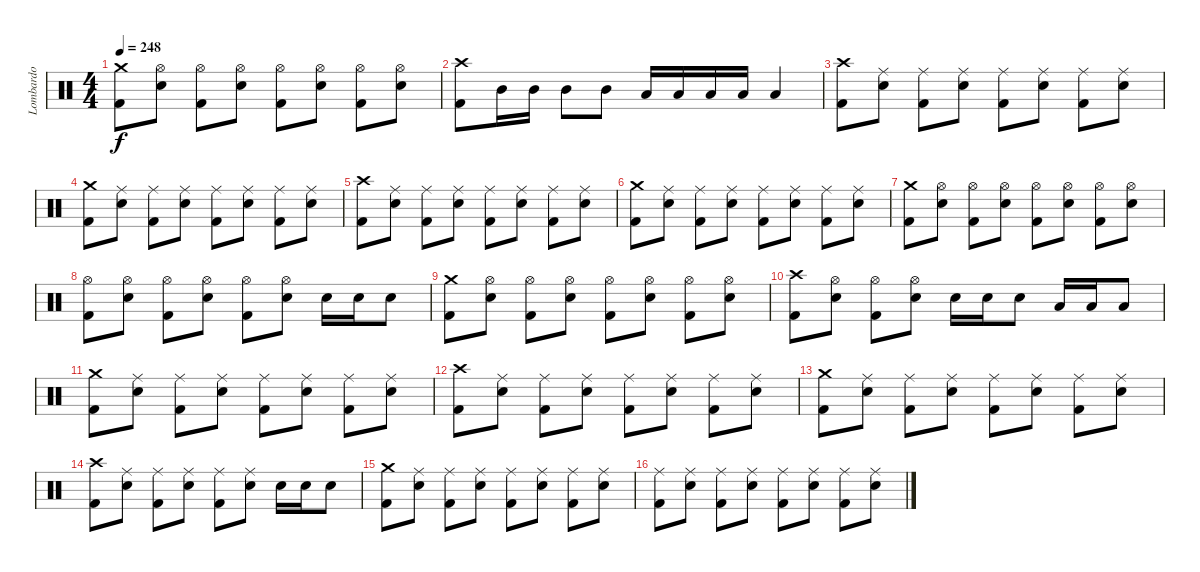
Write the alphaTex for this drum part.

\track ("Lombardo" "Lombardo") {instrument percussion}
\staff {score}
\articulation defaults
\ts (4 4)
\tempo 248
\clef neutral
\ks c
("Crash medium (hit)" "Kick (hit) 2").8{dy f} ("Hi-Hat (open)" "Snare (hit) 2").8 ("Hi-Hat (open)" "Kick (hit) 2").8 ("Hi-Hat (open)" "Snare (hit) 2").8 ("Hi-Hat (open)" "Kick (hit) 2").8 ("Hi-Hat (open)" "Snare (hit) 2").8 ("Hi-Hat (open)" "Kick (hit) 2").8 ("Hi-Hat (open)" "Snare (hit) 2").8 |
("Crash high (hit)" "Kick (hit) 2").8 "Mid Tom (hit)".16 "Mid Tom (hit)".16 "Mid Tom (hit)".8 "Mid Tom (hit)".8 "Low Tom (hit)".16 "Low Tom (hit)".16 "Low Tom (hit)".16 "Low Tom (hit)".16 "Low Tom (hit)".4 |
("Crash high (hit)" "Kick (hit) 2").8 ("Ride (middle)" "Snare (hit) 2").8 ("Ride (middle)" "Kick (hit) 2").8 ("Ride (middle)" "Snare (hit) 2").8 ("Ride (middle)" "Kick (hit) 2").8 ("Ride (middle)" "Snare (hit) 2").8 ("Ride (middle)" "Kick (hit) 2").8 ("Ride (middle)" "Snare (hit) 2").8 |
("Crash medium (hit)" "Kick (hit) 2").8 ("Ride (middle)" "Snare (hit) 2").8 ("Ride (middle)" "Kick (hit) 2").8 ("Ride (middle)" "Snare (hit) 2").8 ("Ride (middle)" "Kick (hit) 2").8 ("Ride (middle)" "Snare (hit) 2").8 ("Ride (middle)" "Kick (hit) 2").8 ("Ride (middle)" "Snare (hit) 2").8 |
("Crash high (hit)" "Kick (hit) 2").8 ("Ride (middle)" "Snare (hit) 2").8 ("Ride (middle)" "Kick (hit) 2").8 ("Ride (middle)" "Snare (hit) 2").8 ("Ride (middle)" "Kick (hit) 2").8 ("Ride (middle)" "Snare (hit) 2").8 ("Ride (middle)" "Kick (hit) 2").8 ("Ride (middle)" "Snare (hit) 2").8 |
("Crash medium (hit)" "Kick (hit) 2").8 ("Ride (middle)" "Snare (hit) 2").8 ("Ride (middle)" "Kick (hit) 2").8 ("Ride (middle)" "Snare (hit) 2").8 ("Ride (middle)" "Kick (hit) 2").8 ("Ride (middle)" "Snare (hit) 2").8 ("Ride (middle)" "Kick (hit) 2").8 ("Ride (middle)" "Snare (hit) 2").8 |
("Crash medium (hit)" "Kick (hit) 2").8 ("Hi-Hat (open)" "Snare (hit) 2").8 ("Hi-Hat (open)" "Kick (hit) 2").8 ("Hi-Hat (open)" "Snare (hit) 2").8 ("Hi-Hat (open)" "Kick (hit) 2").8 ("Hi-Hat (open)" "Snare (hit) 2").8 ("Hi-Hat (open)" "Kick (hit) 2").8 ("Hi-Hat (open)" "Snare (hit) 2").8 |
("Hi-Hat (open)" "Kick (hit) 2").8 ("Hi-Hat (open)" "Snare (hit) 2").8 ("Hi-Hat (open)" "Kick (hit) 2").8 ("Hi-Hat (open)" "Snare (hit) 2").8 ("Hi-Hat (open)" "Kick (hit) 2").8 ("Hi-Hat (open)" "Snare (hit) 2").8 "Snare (hit) 2".16 "Snare (hit) 2".16 "Snare (hit) 2".8 |
("Crash medium (hit)" "Kick (hit) 2").8 ("Hi-Hat (open)" "Snare (hit) 2").8 ("Hi-Hat (open)" "Kick (hit) 2").8 ("Hi-Hat (open)" "Snare (hit) 2").8 ("Hi-Hat (open)" "Kick (hit) 2").8 ("Hi-Hat (open)" "Snare (hit) 2").8 ("Hi-Hat (open)" "Kick (hit) 2").8 ("Hi-Hat (open)" "Snare (hit) 2").8 |
("Crash high (hit)" "Kick (hit) 2").8 ("Hi-Hat (open)" "Snare (hit) 2").8 ("Hi-Hat (open)" "Kick (hit) 2").8 ("Hi-Hat (open)" "Snare (hit) 2").8 "Snare (hit) 2".16 "Snare (hit) 2".16 "Snare (hit) 2".8 "Low Tom (hit)".16 "Low Tom (hit)".16 "Low Tom (hit)".8 |
("Crash medium (hit)" "Kick (hit) 2").8 ("Ride (middle)" "Snare (hit) 2").8 ("Ride (middle)" "Kick (hit) 2").8 ("Ride (middle)" "Snare (hit) 2").8 ("Ride (middle)" "Kick (hit) 2").8 ("Ride (middle)" "Snare (hit) 2").8 ("Ride (middle)" "Kick (hit) 2").8 ("Ride (middle)" "Snare (hit) 2").8 |
("Crash high (hit)" "Kick (hit) 2").8 ("Ride (middle)" "Snare (hit) 2").8 ("Ride (middle)" "Kick (hit) 2").8 ("Ride (middle)" "Snare (hit) 2").8 ("Ride (middle)" "Kick (hit) 2").8 ("Ride (middle)" "Snare (hit) 2").8 ("Ride (middle)" "Kick (hit) 2").8 ("Ride (middle)" "Snare (hit) 2").8 |
("Crash medium (hit)" "Kick (hit) 2").8 ("Ride (middle)" "Snare (hit) 2").8 ("Ride (middle)" "Kick (hit) 2").8 ("Ride (middle)" "Snare (hit) 2").8 ("Ride (middle)" "Kick (hit) 2").8 ("Ride (middle)" "Snare (hit) 2").8 ("Ride (middle)" "Kick (hit) 2").8 ("Ride (middle)" "Snare (hit) 2").8 |
("Crash high (hit)" "Kick (hit) 2").8 ("Ride (middle)" "Snare (hit) 2").8 ("Ride (middle)" "Kick (hit) 2").8 ("Ride (middle)" "Snare (hit) 2").8 ("Ride (middle)" "Kick (hit) 2").8 ("Ride (middle)" "Snare (hit) 2").8 "Snare (hit) 2".16 "Snare (hit) 2".16 "Snare (hit) 2".8 |
("Crash medium (hit)" "Kick (hit) 2").8 ("Ride (middle)" "Snare (hit) 2").8 ("Ride (middle)" "Kick (hit) 2").8 ("Ride (middle)" "Snare (hit) 2").8 ("Ride (middle)" "Kick (hit) 2").8 ("Ride (middle)" "Snare (hit) 2").8 ("Ride (middle)" "Kick (hit) 2").8 ("Ride (middle)" "Snare (hit) 2").8 |
("Ride (middle)" "Kick (hit) 2").8 ("Ride (middle)" "Snare (hit) 2").8 ("Ride (middle)" "Kick (hit) 2").8 ("Ride (middle)" "Snare (hit) 2").8 ("Ride (middle)" "Kick (hit) 2").8 ("Ride (middle)" "Snare (hit) 2").8 ("Ride (middle)" "Kick (hit) 2").8 ("Ride (middle)" "Snare (hit) 2").8
